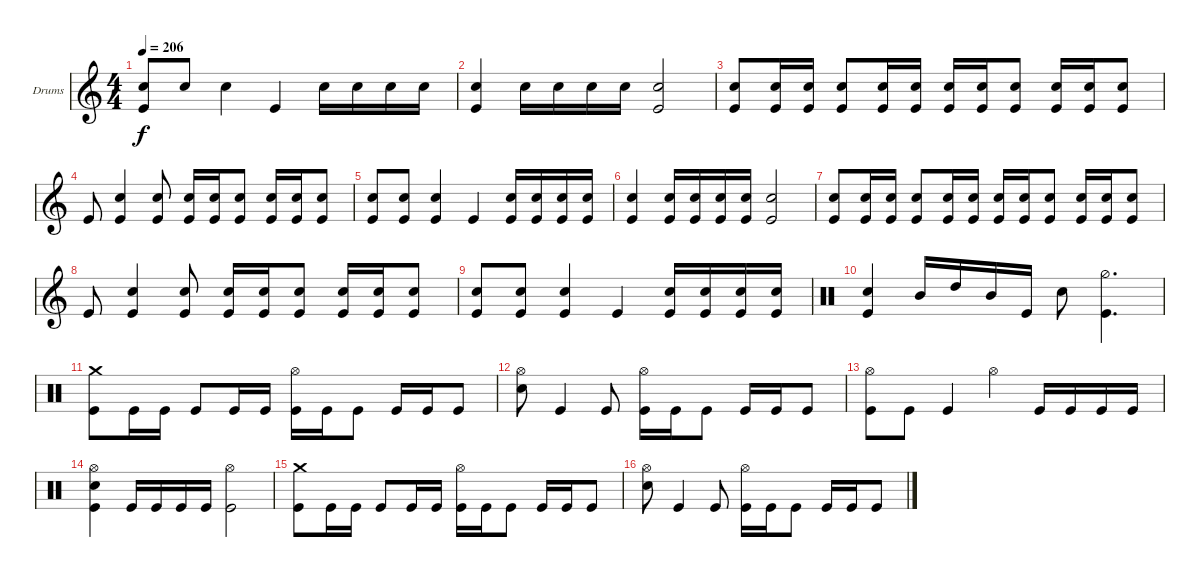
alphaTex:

\bracketExtendMode groupsimilarinstruments
\firstSystemTrackNameOrientation horizontal
\otherSystemsTrackNameOrientation horizontal
\track ("Drumkit" "Drums") {instrument percussion}
\staff {score}
\articulation defaults
\ts (4 4)
\tempo 206
\clef g2
\scale
0.542056
\ks c
("Snare (hit) 2" "Kick (hit)").8{dy f} "Snare (hit) 2".8 "Snare (hit) 2".4 "Kick (hit)".4 "Snare (hit) 2".16 "Snare (hit) 2".16 "Snare (hit) 2".16 "Snare (hit) 2".16 |
\scale
0.457944 ("Snare (hit) 2" "Kick (hit)").4 "Snare (hit) 2".16 "Snare (hit) 2".16 "Snare (hit) 2".16 "Snare (hit) 2".16 ("Snare (hit) 2" "Kick (hit)").2 |
\scale
0.535354 ("Snare (hit) 2" "Kick (hit)").8 ("Snare (hit) 2" "Kick (hit)").16 ("Snare (hit) 2" "Kick (hit)").16 ("Snare (hit) 2" "Kick (hit)").8 ("Snare (hit) 2" "Kick (hit)").16 ("Snare (hit) 2" "Kick (hit)").16 ("Snare (hit) 2" "Kick (hit)").16 ("Snare (hit) 2" "Kick (hit)").16 ("Snare (hit) 2" "Kick (hit)").8 ("Snare (hit) 2" "Kick (hit)").16 ("Snare (hit) 2" "Kick (hit)").16 ("Snare (hit) 2" "Kick (hit)").8 |
\scale
0.464646 "Kick (hit)".8 ("Snare (hit) 2" "Kick (hit)").4 ("Snare (hit) 2" "Kick (hit)").8 ("Snare (hit) 2" "Kick (hit)").16 ("Snare (hit) 2" "Kick (hit)").16 ("Snare (hit) 2" "Kick (hit)").8 ("Snare (hit) 2" "Kick (hit)").16 ("Snare (hit) 2" "Kick (hit)").16 ("Snare (hit) 2" "Kick (hit)").8 |
\scale
0.542056 ("Snare (hit) 2" "Kick (hit)").8 ("Snare (hit) 2" "Kick (hit)").8 ("Snare (hit) 2" "Kick (hit)").4 "Kick (hit)".4 ("Snare (hit) 2" "Kick (hit)").16 ("Snare (hit) 2" "Kick (hit)").16 ("Snare (hit) 2" "Kick (hit)").16 ("Snare (hit) 2" "Kick (hit)").16 |
\scale
0.457944 ("Snare (hit) 2" "Kick (hit)").4 ("Snare (hit) 2" "Kick (hit)").16 ("Snare (hit) 2" "Kick (hit)").16 ("Snare (hit) 2" "Kick (hit)").16 ("Snare (hit) 2" "Kick (hit)").16 ("Snare (hit) 2" "Kick (hit)").2 |
\scale
0.535354 ("Snare (hit) 2" "Kick (hit)").8 ("Snare (hit) 2" "Kick (hit)").16 ("Snare (hit) 2" "Kick (hit)").16 ("Snare (hit) 2" "Kick (hit)").8 ("Snare (hit) 2" "Kick (hit)").16 ("Snare (hit) 2" "Kick (hit)").16 ("Snare (hit) 2" "Kick (hit)").16 ("Snare (hit) 2" "Kick (hit)").16 ("Snare (hit) 2" "Kick (hit)").8 ("Snare (hit) 2" "Kick (hit)").16 ("Snare (hit) 2" "Kick (hit)").16 ("Snare (hit) 2" "Kick (hit)").8 |
\scale
0.464646 "Kick (hit)".8 ("Snare (hit) 2" "Kick (hit)").4 ("Snare (hit) 2" "Kick (hit)").8 ("Snare (hit) 2" "Kick (hit)").16 ("Snare (hit) 2" "Kick (hit)").16 ("Snare (hit) 2" "Kick (hit)").8 ("Snare (hit) 2" "Kick (hit)").16 ("Snare (hit) 2" "Kick (hit)").16 ("Snare (hit) 2" "Kick (hit)").8 |
\scale
0.519403 ("Snare (hit) 2" "Kick (hit)").8 ("Snare (hit) 2" "Kick (hit)").8 ("Snare (hit) 2" "Kick (hit)").4 "Kick (hit)".4 ("Snare (hit) 2" "Kick (hit)").16 ("Snare (hit) 2" "Kick (hit)").16 ("Snare (hit) 2" "Kick (hit)").16 ("Snare (hit) 2" "Kick (hit)").16 |
\clef neutral
\scale
0.480597 ("Snare (hit) 2" "Kick (hit)").4 "Mid Tom (hit)".16 "High Tom (hit)".16 "Mid Tom (hit)".16 "Kick (hit)".16 "Snare (hit) 2".8 ("Kick (hit)" "Hi-Hat (half)").4{d} |
\scale
0.535354 ("Kick (hit)" "Crash medium (hit)").8 "Kick (hit)".16 "Kick (hit)".16 "Kick (hit)".8 "Kick (hit)".16 "Kick (hit)".16 ("Kick (hit)" "Hi-Hat (open)").16 "Kick (hit)".16 "Kick (hit)".8 "Kick (hit)".16 "Kick (hit)".16 "Kick (hit)".8 |
\scale
0.464646 ("Hi-Hat (open)" "Snare (hit) 2").8 "Kick (hit)".4 "Kick (hit)".8 ("Hi-Hat (open)" "Kick (hit)").16 "Kick (hit)".16 "Kick (hit)".8 "Kick (hit)".16 "Kick (hit)".16 "Kick (hit)".8 |
\scale
0.542056 ("Hi-Hat (open)" "Kick (hit)").8 "Kick (hit)".8 "Kick (hit)".4 "Hi-Hat (open)".4 "Kick (hit)".16 "Kick (hit)".16 "Kick (hit)".16 "Kick (hit)".16 |
\scale
0.457944 ("Hi-Hat (open)" "Snare (hit) 2" "Kick (hit)").4 "Kick (hit)".16 "Kick (hit)".16 "Kick (hit)".16 "Kick (hit)".16 ("Hi-Hat (open)" "Kick (hit)").2 |
\scale
0.535354 ("Kick (hit)" "Crash medium (hit)").8 "Kick (hit)".16 "Kick (hit)".16 "Kick (hit)".8 "Kick (hit)".16 "Kick (hit)".16 ("Kick (hit)" "Hi-Hat (open)").16 "Kick (hit)".16 "Kick (hit)".8 "Kick (hit)".16 "Kick (hit)".16 "Kick (hit)".8 |
\scale
0.464646 ("Hi-Hat (open)" "Snare (hit) 2").8 "Kick (hit)".4 "Kick (hit)".8 ("Hi-Hat (open)" "Kick (hit)").16 "Kick (hit)".16 "Kick (hit)".8 "Kick (hit)".16 "Kick (hit)".16 "Kick (hit)".8
